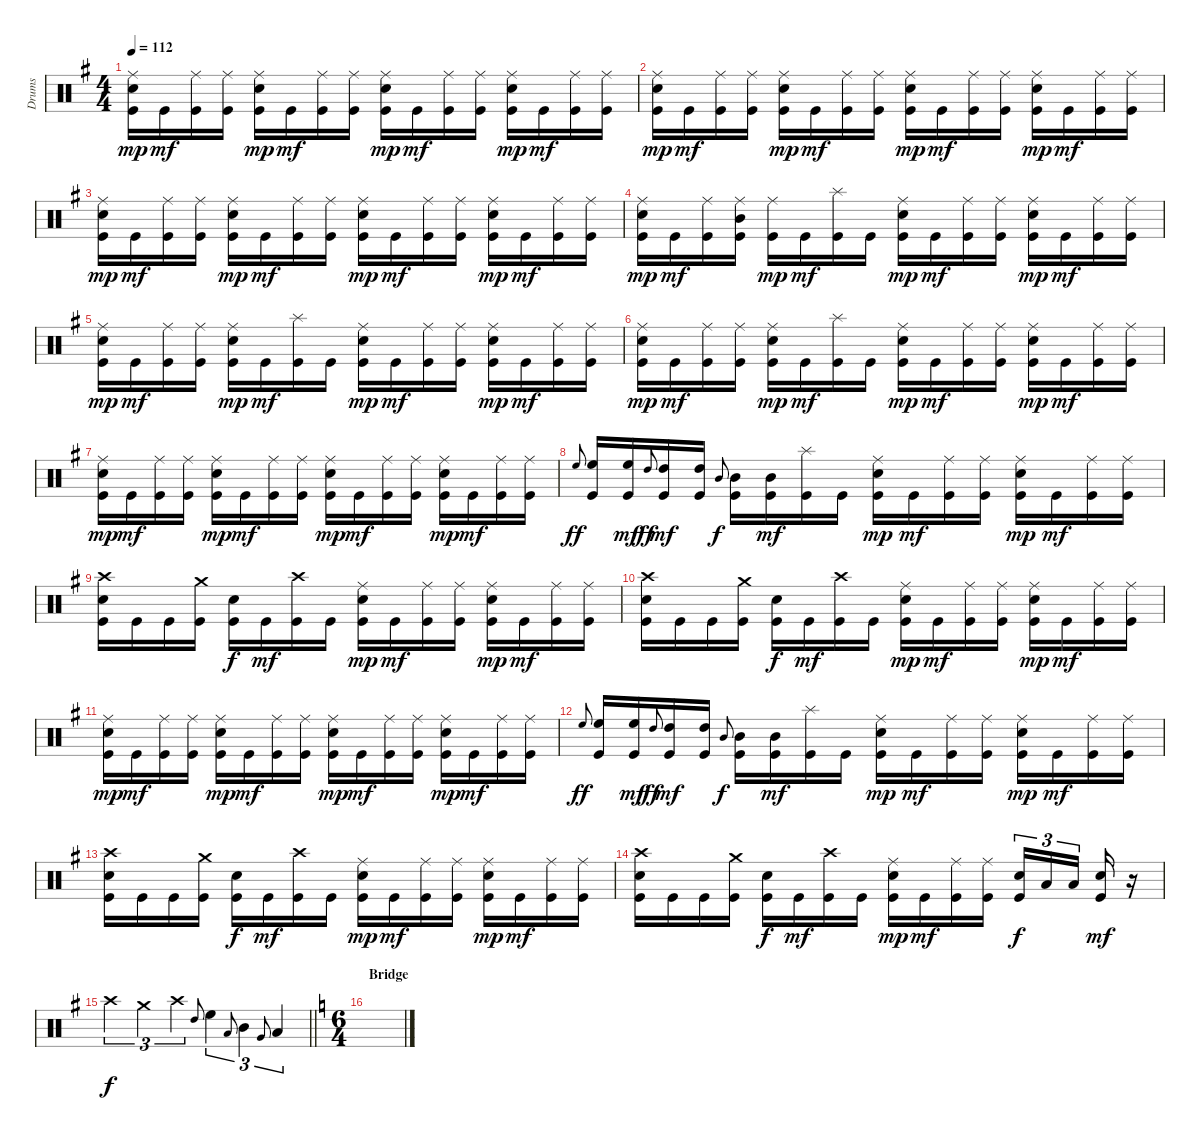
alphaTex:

\track ("Drums" "Drums") {instrument percussion}
\staff {score}
\articulation defaults
\ts (4 4)
\tempo 112
\clef neutral
\ks g
("Ride (middle)" "Snare (hit) 2" "Kick (hit)").16{dy mp} "Kick (hit)".16{dy mf} ("Ride (middle)" "Kick (hit)").16 ("Ride (middle)" "Kick (hit)").16 ("Ride (middle)" "Snare (hit) 2" "Kick (hit)").16{dy mp} "Kick (hit)".16{dy mf} ("Ride (middle)" "Kick (hit)").16 ("Ride (middle)" "Kick (hit)").16 ("Ride (middle)" "Snare (hit) 2" "Kick (hit)").16{dy mp} "Kick (hit)".16{dy mf} ("Ride (middle)" "Kick (hit)").16 ("Ride (middle)" "Kick (hit)").16 ("Ride (middle)" "Snare (hit) 2" "Kick (hit)").16{dy mp} "Kick (hit)".16{dy mf} ("Ride (middle)" "Kick (hit)").16 ("Ride (middle)" "Kick (hit)").16 |
("Ride (middle)" "Snare (hit) 2" "Kick (hit)").16{dy mp} "Kick (hit)".16{dy mf} ("Ride (middle)" "Kick (hit)").16 ("Ride (middle)" "Kick (hit)").16 ("Ride (middle)" "Snare (hit) 2" "Kick (hit)").16{dy mp} "Kick (hit)".16{dy mf} ("Ride (middle)" "Kick (hit)").16 ("Ride (middle)" "Kick (hit)").16 ("Ride (middle)" "Snare (hit) 2" "Kick (hit)").16{dy mp} "Kick (hit)".16{dy mf} ("Ride (middle)" "Kick (hit)").16 ("Ride (middle)" "Kick (hit)").16 ("Ride (middle)" "Snare (hit) 2" "Kick (hit)").16{dy mp} "Kick (hit)".16{dy mf} ("Ride (middle)" "Kick (hit)").16 ("Ride (middle)" "Kick (hit)").16 |
("Ride (middle)" "Snare (hit) 2" "Kick (hit)").16{dy mp} "Kick (hit)".16{dy mf} ("Ride (middle)" "Kick (hit)").16 ("Ride (middle)" "Kick (hit)").16 ("Ride (middle)" "Snare (hit) 2" "Kick (hit)").16{dy mp} "Kick (hit)".16{dy mf} ("Ride (middle)" "Kick (hit)").16 ("Ride (middle)" "Kick (hit)").16 ("Ride (middle)" "Snare (hit) 2" "Kick (hit)").16{dy mp} "Kick (hit)".16{dy mf} ("Ride (middle)" "Kick (hit)").16 ("Ride (middle)" "Kick (hit)").16 ("Ride (middle)" "Snare (hit) 2" "Kick (hit)").16{dy mp} "Kick (hit)".16{dy mf} ("Ride (middle)" "Kick (hit)").16 ("Ride (middle)" "Kick (hit)").16 |
("Ride (middle)" "Snare (hit) 2" "Kick (hit)").16{dy mp} "Kick (hit)".16{dy mf} ("Ride (middle)" "Kick (hit)").16 ("Ride (middle)" "Mid Tom (hit)" "Kick (hit)").16 ("Ride (middle)" "Kick (hit)").16{dy mp} "Kick (hit)".16{dy mf} ("Splash (hit)" "Kick (hit)").16 "Kick (hit)".16 ("Ride (middle)" "Snare (hit) 2" "Kick (hit)").16{dy mp} "Kick (hit)".16{dy mf} ("Ride (middle)" "Kick (hit)").16 ("Ride (middle)" "Kick (hit)").16 ("Ride (middle)" "Snare (hit) 2" "Kick (hit)").16{dy mp} "Kick (hit)".16{dy mf} ("Ride (middle)" "Kick (hit)").16 ("Ride (middle)" "Kick (hit)").16 |
("Ride (middle)" "Snare (hit) 2" "Kick (hit)").16{dy mp} "Kick (hit)".16{dy mf} ("Ride (middle)" "Kick (hit)").16 ("Ride (middle)" "Kick (hit)").16 ("Ride (middle)" "Snare (hit) 2" "Kick (hit)").16{dy mp} "Kick (hit)".16{dy mf} ("Splash (hit)" "Kick (hit)").16 "Kick (hit)".16 ("Ride (middle)" "Snare (hit) 2" "Kick (hit)").16{dy mp} "Kick (hit)".16{dy mf} ("Ride (middle)" "Kick (hit)").16 ("Ride (middle)" "Kick (hit)").16 ("Ride (middle)" "Snare (hit) 2" "Kick (hit)").16{dy mp} "Kick (hit)".16{dy mf} ("Ride (middle)" "Kick (hit)").16 ("Ride (middle)" "Kick (hit)").16 |
("Ride (middle)" "Snare (hit) 2" "Kick (hit)").16{dy mp} "Kick (hit)".16{dy mf} ("Ride (middle)" "Kick (hit)").16 ("Ride (middle)" "Kick (hit)").16 ("Ride (middle)" "Snare (hit) 2" "Kick (hit)").16{dy mp} "Kick (hit)".16{dy mf} ("Splash (hit)" "Kick (hit)").16 "Kick (hit)".16 ("Ride (middle)" "Snare (hit) 2" "Kick (hit)").16{dy mp} "Kick (hit)".16{dy mf} ("Ride (middle)" "Kick (hit)").16 ("Ride (middle)" "Kick (hit)").16 ("Ride (middle)" "Snare (hit) 2" "Kick (hit)").16{dy mp} "Kick (hit)".16{dy mf} ("Ride (middle)" "Kick (hit)").16 ("Ride (middle)" "Kick (hit)").16 |
("Ride (middle)" "Snare (hit) 2" "Kick (hit)").16{dy mp} "Kick (hit)".16{dy mf} ("Ride (middle)" "Kick (hit)").16 ("Ride (middle)" "Kick (hit)").16 ("Ride (middle)" "Snare (hit) 2" "Kick (hit)").16{dy mp} "Kick (hit)".16{dy mf} ("Ride (middle)" "Kick (hit)").16 ("Ride (middle)" "Kick (hit)").16 ("Ride (middle)" "Snare (hit) 2" "Kick (hit)").16{dy mp} "Kick (hit)".16{dy mf} ("Ride (middle)" "Kick (hit)").16 ("Ride (middle)" "Kick (hit)").16 ("Ride (middle)" "Snare (hit) 2" "Kick (hit)").16{dy mp} "Kick (hit)".16{dy mf} ("Ride (middle)" "Kick (hit)").16 ("Ride (middle)" "Kick (hit)").16 |
"High Floor Tom (hit)".8{gr onbeat dy ff} ("High Floor Tom (hit)" "Kick (hit)").16 ("High Floor Tom (hit)" "Kick (hit)").16{dy mf} "High Tom (hit)".8{gr onbeat dy ff} ("High Tom (hit)" "Kick (hit)").16{dy mf} ("High Tom (hit)" "Kick (hit)").16 "Mid Tom (hit)".8{gr onbeat dy f} ("Mid Tom (hit)" "Kick (hit)").16 ("Mid Tom (hit)" "Kick (hit)").16{dy mf} ("Splash (hit)" "Kick (hit)").16 "Kick (hit)".16 ("Ride (middle)" "Snare (hit) 2" "Kick (hit)").16{dy mp} "Kick (hit)".16{dy mf} ("Ride (middle)" "Kick (hit)").16 ("Ride (middle)" "Kick (hit)").16 ("Ride (middle)" "Snare (hit) 2" "Kick (hit)").16{dy mp} "Kick (hit)".16{dy mf} ("Ride (middle)" "Kick (hit)").16 ("Ride (middle)" "Kick (hit)").16 |
("Crash high (hit)" "Snare (hit) 2" "Kick (hit)").16 "Kick (hit)".16 "Kick (hit)".16 ("Crash medium (hit)" "Kick (hit)").16 ("Snare (hit) 2" "Kick (hit)").16{dy f} "Kick (hit)".16{dy mf} ("Crash high (hit)" "Kick (hit)").16 "Kick (hit)".16 ("Ride (middle)" "Snare (hit) 2" "Kick (hit)").16{dy mp} "Kick (hit)".16{dy mf} ("Ride (middle)" "Kick (hit)").16 ("Ride (middle)" "Kick (hit)").16 ("Ride (middle)" "Snare (hit) 2" "Kick (hit)").16{dy mp} "Kick (hit)".16{dy mf} ("Ride (middle)" "Kick (hit)").16 ("Ride (middle)" "Kick (hit)").16 |
("Crash high (hit)" "Snare (hit) 2" "Kick (hit)").16 "Kick (hit)".16 "Kick (hit)".16 ("Crash medium (hit)" "Kick (hit)").16 ("Snare (hit) 2" "Kick (hit)").16{dy f} "Kick (hit)".16{dy mf} ("Crash high (hit)" "Kick (hit)").16 "Kick (hit)".16 ("Ride (middle)" "Snare (hit) 2" "Kick (hit)").16{dy mp} "Kick (hit)".16{dy mf} ("Ride (middle)" "Kick (hit)").16 ("Ride (middle)" "Kick (hit)").16 ("Ride (middle)" "Snare (hit) 2" "Kick (hit)").16{dy mp} "Kick (hit)".16{dy mf} ("Ride (middle)" "Kick (hit)").16 ("Ride (middle)" "Kick (hit)").16 |
("Ride (middle)" "Snare (hit) 2" "Kick (hit)").16{dy mp} "Kick (hit)".16{dy mf} ("Ride (middle)" "Kick (hit)").16 ("Ride (middle)" "Kick (hit)").16 ("Ride (middle)" "Snare (hit) 2" "Kick (hit)").16{dy mp} "Kick (hit)".16{dy mf} ("Ride (middle)" "Kick (hit)").16 ("Ride (middle)" "Kick (hit)").16 ("Ride (middle)" "Snare (hit) 2" "Kick (hit)").16{dy mp} "Kick (hit)".16{dy mf} ("Ride (middle)" "Kick (hit)").16 ("Ride (middle)" "Kick (hit)").16 ("Ride (middle)" "Snare (hit) 2" "Kick (hit)").16{dy mp} "Kick (hit)".16{dy mf} ("Ride (middle)" "Kick (hit)").16 ("Ride (middle)" "Kick (hit)").16 |
"High Floor Tom (hit)".8{gr onbeat dy ff} ("High Floor Tom (hit)" "Kick (hit)").16 ("High Floor Tom (hit)" "Kick (hit)").16{dy mf} "High Tom (hit)".8{gr onbeat dy ff} ("High Tom (hit)" "Kick (hit)").16{dy mf} ("High Tom (hit)" "Kick (hit)").16 "Mid Tom (hit)".8{gr onbeat dy f} ("Mid Tom (hit)" "Kick (hit)").16 ("Mid Tom (hit)" "Kick (hit)").16{dy mf} ("Splash (hit)" "Kick (hit)").16 "Kick (hit)".16 ("Ride (middle)" "Snare (hit) 2" "Kick (hit)").16{dy mp} "Kick (hit)".16{dy mf} ("Ride (middle)" "Kick (hit)").16 ("Ride (middle)" "Kick (hit)").16 ("Ride (middle)" "Snare (hit) 2" "Kick (hit)").16{dy mp} "Kick (hit)".16{dy mf} ("Ride (middle)" "Kick (hit)").16 ("Ride (middle)" "Kick (hit)").16 |
("Crash high (hit)" "Snare (hit) 2" "Kick (hit)").16 "Kick (hit)".16 "Kick (hit)".16 ("Crash medium (hit)" "Kick (hit)").16 ("Snare (hit) 2" "Kick (hit)").16{dy f} "Kick (hit)".16{dy mf} ("Crash high (hit)" "Kick (hit)").16 "Kick (hit)".16 ("Ride (middle)" "Snare (hit) 2" "Kick (hit)").16{dy mp} "Kick (hit)".16{dy mf} ("Ride (middle)" "Kick (hit)").16 ("Ride (middle)" "Kick (hit)").16 ("Ride (middle)" "Snare (hit) 2" "Kick (hit)").16{dy mp} "Kick (hit)".16{dy mf} ("Ride (middle)" "Kick (hit)").16 ("Ride (middle)" "Kick (hit)").16 |
("Crash high (hit)" "Snare (hit) 2" "Kick (hit)").16 "Kick (hit)".16 "Kick (hit)".16 ("Crash medium (hit)" "Kick (hit)").16 ("Snare (hit) 2" "Kick (hit)").16{dy f} "Kick (hit)".16{dy mf} ("Crash high (hit)" "Kick (hit)").16 "Kick (hit)".16 ("Ride (middle)" "Snare (hit) 2" "Kick (hit)").16{dy mp} "Kick (hit)".16{dy mf} ("Ride (middle)" "Kick (hit)").16 ("Ride (middle)" "Kick (hit)").16 ("Snare (hit) 2" "Kick (hit)").16{tu (3 2) dy f} "Low Tom (hit)".16{tu (3 2)} "Low Floor Tom (hit)".16{tu (3 2) beam splitsecondary} ("Electric Snare (hit)" "Kick (hit)").16{dy mf} r.16 |
\barLineRight lightlight "Crash high (hit)".4{tu (3 2) dy f} "Crash medium (hit)".4{tu (3 2)} "Crash high (hit)".4{tu (3 2)} "High Tom (hit)".8{gr onbeat} "High Floor Tom (hit)".4{tu (3 2)} "Low Tom (hit)".8{gr onbeat} "Mid Tom (hit)".4{tu (3 2)} "Very Low Tom (hit)".8{gr onbeat} "Low Tom (hit)".4{tu (3 2)}
|
\ts (6 4)
\section ("" "Bridge")
\ks c
